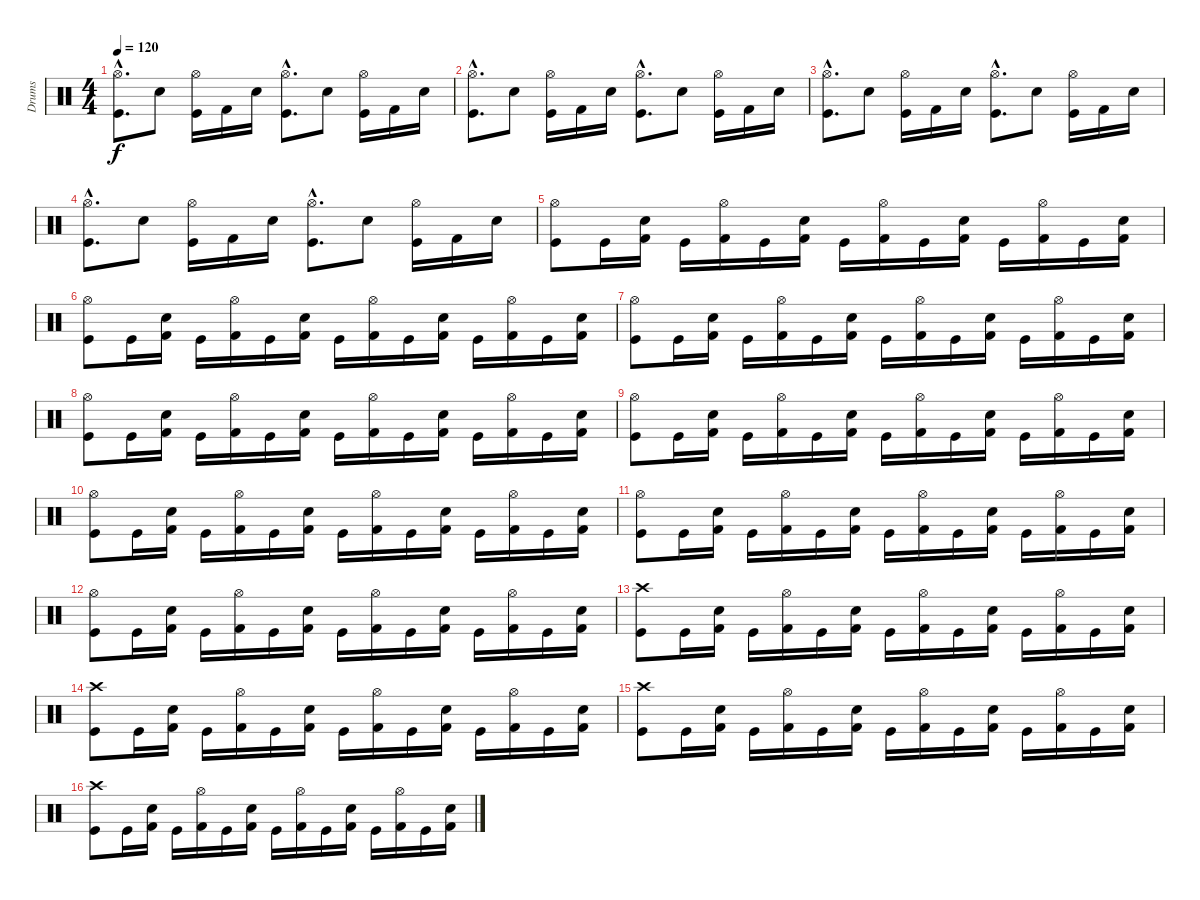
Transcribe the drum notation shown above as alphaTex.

\track ("Drums" "Drums") {instrument percussion}
\staff {score}
\articulation defaults
\ts (4 4)
\tempo 120
\clef neutral
\ks c
("Hi-Hat (open)"{hac} "Kick (hit)"{hac}).8{d dy f} "Snare (hit) 2".8 ("Hi-Hat (open)" "Kick (hit)").16 "Kick (hit) 2".16 "Snare (hit) 2".16 ("Hi-Hat (open)"{hac} "Kick (hit)"{hac}).8{d} "Snare (hit) 2".8 ("Hi-Hat (open)" "Kick (hit)").16 "Kick (hit) 2".16 "Snare (hit) 2".16 |
("Hi-Hat (open)"{hac} "Kick (hit)"{hac}).8{d} "Snare (hit) 2".8 ("Hi-Hat (open)" "Kick (hit)").16 "Kick (hit) 2".16 "Snare (hit) 2".16 ("Hi-Hat (open)"{hac} "Kick (hit)"{hac}).8{d} "Snare (hit) 2".8 ("Hi-Hat (open)" "Kick (hit)").16 "Kick (hit) 2".16 "Snare (hit) 2".16 |
("Hi-Hat (open)"{hac} "Kick (hit)"{hac}).8{d} "Snare (hit) 2".8 ("Hi-Hat (open)" "Kick (hit)").16 "Kick (hit) 2".16 "Snare (hit) 2".16 ("Hi-Hat (open)"{hac} "Kick (hit)"{hac}).8{d} "Snare (hit) 2".8 ("Hi-Hat (open)" "Kick (hit)").16 "Kick (hit) 2".16 "Snare (hit) 2".16 |
("Hi-Hat (open)"{hac} "Kick (hit)"{hac}).8{d} "Snare (hit) 2".8 ("Hi-Hat (open)" "Kick (hit)").16 "Kick (hit) 2".16 "Snare (hit) 2".16 ("Hi-Hat (open)"{hac} "Kick (hit)"{hac}).8{d} "Snare (hit) 2".8 ("Hi-Hat (open)" "Kick (hit)").16 "Kick (hit) 2".16 "Snare (hit) 2".16 |
("Hi-Hat (open)" "Kick (hit)").8 "Kick (hit)".16 ("Snare (hit) 2" "Kick (hit) 2").16 "Kick (hit)".16 ("Hi-Hat (open)" "Kick (hit) 2").16 "Kick (hit)".16 ("Snare (hit) 2" "Kick (hit) 2").16 "Kick (hit)".16 ("Hi-Hat (open)" "Kick (hit) 2").16 "Kick (hit)".16 ("Snare (hit) 2" "Kick (hit) 2").16 "Kick (hit)".16 ("Hi-Hat (open)" "Kick (hit) 2").16 "Kick (hit)".16 ("Snare (hit) 2" "Kick (hit) 2").16 |
("Hi-Hat (open)" "Kick (hit)").8 "Kick (hit)".16 ("Snare (hit) 2" "Kick (hit) 2").16 "Kick (hit)".16 ("Hi-Hat (open)" "Kick (hit) 2").16 "Kick (hit)".16 ("Snare (hit) 2" "Kick (hit) 2").16 "Kick (hit)".16 ("Hi-Hat (open)" "Kick (hit) 2").16 "Kick (hit)".16 ("Snare (hit) 2" "Kick (hit) 2").16 "Kick (hit)".16 ("Hi-Hat (open)" "Kick (hit) 2").16 "Kick (hit)".16 ("Snare (hit) 2" "Kick (hit) 2").16 |
("Hi-Hat (open)" "Kick (hit)").8 "Kick (hit)".16 ("Snare (hit) 2" "Kick (hit) 2").16 "Kick (hit)".16 ("Hi-Hat (open)" "Kick (hit) 2").16 "Kick (hit)".16 ("Snare (hit) 2" "Kick (hit) 2").16 "Kick (hit)".16 ("Hi-Hat (open)" "Kick (hit) 2").16 "Kick (hit)".16 ("Snare (hit) 2" "Kick (hit) 2").16 "Kick (hit)".16 ("Hi-Hat (open)" "Kick (hit) 2").16 "Kick (hit)".16 ("Snare (hit) 2" "Kick (hit) 2").16 |
("Hi-Hat (open)" "Kick (hit)").8 "Kick (hit)".16 ("Snare (hit) 2" "Kick (hit) 2").16 "Kick (hit)".16 ("Hi-Hat (open)" "Kick (hit) 2").16 "Kick (hit)".16 ("Snare (hit) 2" "Kick (hit) 2").16 "Kick (hit)".16 ("Hi-Hat (open)" "Kick (hit) 2").16 "Kick (hit)".16 ("Snare (hit) 2" "Kick (hit) 2").16 "Kick (hit)".16 ("Hi-Hat (open)" "Kick (hit) 2").16 "Kick (hit)".16 ("Snare (hit) 2" "Kick (hit) 2").16 |
("Hi-Hat (open)" "Kick (hit)").8 "Kick (hit)".16 ("Snare (hit) 2" "Kick (hit) 2").16 "Kick (hit)".16 ("Hi-Hat (open)" "Kick (hit) 2").16 "Kick (hit)".16 ("Snare (hit) 2" "Kick (hit) 2").16 "Kick (hit)".16 ("Hi-Hat (open)" "Kick (hit) 2").16 "Kick (hit)".16 ("Snare (hit) 2" "Kick (hit) 2").16 "Kick (hit)".16 ("Hi-Hat (open)" "Kick (hit) 2").16 "Kick (hit)".16 ("Snare (hit) 2" "Kick (hit) 2").16 |
("Hi-Hat (open)" "Kick (hit)").8 "Kick (hit)".16 ("Snare (hit) 2" "Kick (hit) 2").16 "Kick (hit)".16 ("Hi-Hat (open)" "Kick (hit) 2").16 "Kick (hit)".16 ("Snare (hit) 2" "Kick (hit) 2").16 "Kick (hit)".16 ("Hi-Hat (open)" "Kick (hit) 2").16 "Kick (hit)".16 ("Snare (hit) 2" "Kick (hit) 2").16 "Kick (hit)".16 ("Hi-Hat (open)" "Kick (hit) 2").16 "Kick (hit)".16 ("Snare (hit) 2" "Kick (hit) 2").16 |
("Hi-Hat (open)" "Kick (hit)").8 "Kick (hit)".16 ("Snare (hit) 2" "Kick (hit) 2").16 "Kick (hit)".16 ("Hi-Hat (open)" "Kick (hit) 2").16 "Kick (hit)".16 ("Snare (hit) 2" "Kick (hit) 2").16 "Kick (hit)".16 ("Hi-Hat (open)" "Kick (hit) 2").16 "Kick (hit)".16 ("Snare (hit) 2" "Kick (hit) 2").16 "Kick (hit)".16 ("Hi-Hat (open)" "Kick (hit) 2").16 "Kick (hit)".16 ("Snare (hit) 2" "Kick (hit) 2").16 |
("Hi-Hat (open)" "Kick (hit)").8 "Kick (hit)".16 ("Snare (hit) 2" "Kick (hit) 2").16 "Kick (hit)".16 ("Hi-Hat (open)" "Kick (hit) 2").16 "Kick (hit)".16 ("Snare (hit) 2" "Kick (hit) 2").16 "Kick (hit)".16 ("Hi-Hat (open)" "Kick (hit) 2").16 "Kick (hit)".16 ("Snare (hit) 2" "Kick (hit) 2").16 "Kick (hit)".16 ("Hi-Hat (open)" "Kick (hit) 2").16 "Kick (hit)".16 ("Snare (hit) 2" "Kick (hit) 2").16 |
("Crash high (hit)" "Kick (hit)").8 "Kick (hit)".16 ("Snare (hit) 2" "Kick (hit) 2").16 "Kick (hit)".16 ("Hi-Hat (open)" "Kick (hit) 2").16 "Kick (hit)".16 ("Snare (hit) 2" "Kick (hit) 2").16 "Kick (hit)".16 ("Hi-Hat (open)" "Kick (hit) 2").16 "Kick (hit)".16 ("Snare (hit) 2" "Kick (hit) 2").16 "Kick (hit)".16 ("Hi-Hat (open)" "Kick (hit) 2").16 "Kick (hit)".16 ("Snare (hit) 2" "Kick (hit) 2").16 |
("Crash high (hit)" "Kick (hit)").8 "Kick (hit)".16 ("Snare (hit) 2" "Kick (hit) 2").16 "Kick (hit)".16 ("Hi-Hat (open)" "Kick (hit) 2").16 "Kick (hit)".16 ("Snare (hit) 2" "Kick (hit) 2").16 "Kick (hit)".16 ("Hi-Hat (open)" "Kick (hit) 2").16 "Kick (hit)".16 ("Snare (hit) 2" "Kick (hit) 2").16 "Kick (hit)".16 ("Hi-Hat (open)" "Kick (hit) 2").16 "Kick (hit)".16 ("Snare (hit) 2" "Kick (hit) 2").16 |
("Crash high (hit)" "Kick (hit)").8 "Kick (hit)".16 ("Snare (hit) 2" "Kick (hit) 2").16 "Kick (hit)".16 ("Hi-Hat (open)" "Kick (hit) 2").16 "Kick (hit)".16 ("Snare (hit) 2" "Kick (hit) 2").16 "Kick (hit)".16 ("Hi-Hat (open)" "Kick (hit) 2").16 "Kick (hit)".16 ("Snare (hit) 2" "Kick (hit) 2").16 "Kick (hit)".16 ("Hi-Hat (open)" "Kick (hit) 2").16 "Kick (hit)".16 ("Snare (hit) 2" "Kick (hit) 2").16 |
("Crash high (hit)" "Kick (hit)").8 "Kick (hit)".16 ("Snare (hit) 2" "Kick (hit) 2").16 "Kick (hit)".16 ("Hi-Hat (open)" "Kick (hit) 2").16 "Kick (hit)".16 ("Snare (hit) 2" "Kick (hit) 2").16 "Kick (hit)".16 ("Hi-Hat (open)" "Kick (hit) 2").16 "Kick (hit)".16 ("Snare (hit) 2" "Kick (hit) 2").16 "Kick (hit)".16 ("Hi-Hat (open)" "Kick (hit) 2").16 "Kick (hit)".16 ("Snare (hit) 2" "Kick (hit) 2").16
